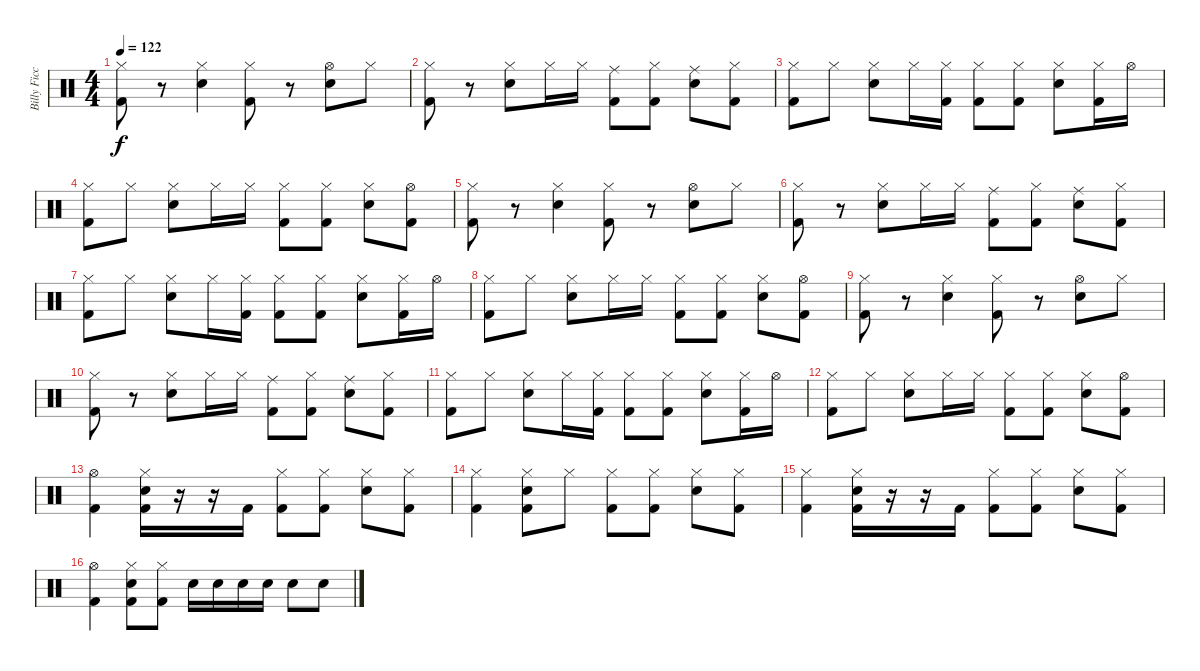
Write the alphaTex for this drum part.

\track ("Billy Ficca" "Billy Ficc") {instrument percussion}
\staff {score}
\articulation defaults
\ts (4 4)
\tempo 122
\clef neutral
\ks c
("Hi-Hat (closed)" "Kick (hit) 2").8{dy f} r.8 ("Hi-Hat (closed)" "Snare (hit) 2").4 ("Hi-Hat (closed)" "Kick (hit) 2").8 r.8 ("Hi-Hat (open)" "Snare (hit) 2").8 "Hi-Hat (closed)".8 |
("Hi-Hat (closed)" "Kick (hit) 2").8 r.8 ("Hi-Hat (closed)" "Snare (hit) 2").8 "Hi-Hat (closed)".16 "Hi-Hat (closed)".16 ("Ride (middle)" "Kick (hit) 2").8 ("Hi-Hat (closed)" "Kick (hit) 2").8 ("Ride (middle)" "Snare (hit) 2").8 ("Hi-Hat (closed)" "Kick (hit) 2").8 |
("Hi-Hat (closed)" "Kick (hit) 2").8 "Hi-Hat (closed)".8 ("Hi-Hat (closed)" "Snare (hit) 2").8 "Hi-Hat (closed)".16 ("Hi-Hat (closed)" "Kick (hit) 2").16 ("Hi-Hat (closed)" "Kick (hit) 2").8 ("Hi-Hat (closed)" "Kick (hit) 2").8 ("Hi-Hat (closed)" "Snare (hit) 2").8 ("Hi-Hat (closed)" "Kick (hit) 2").16 "Hi-Hat (open)".16 |
("Hi-Hat (closed)" "Kick (hit) 2").8 "Hi-Hat (closed)".8 ("Hi-Hat (closed)" "Snare (hit) 2").8 "Hi-Hat (closed)".16 "Hi-Hat (closed)".16 ("Hi-Hat (closed)" "Kick (hit) 2").8 ("Hi-Hat (closed)" "Kick (hit) 2").8 ("Hi-Hat (closed)" "Snare (hit) 2").8 ("Hi-Hat (open)" "Kick (hit) 2").8 |
("Hi-Hat (closed)" "Kick (hit) 2").8 r.8 ("Hi-Hat (closed)" "Snare (hit) 2").4 ("Hi-Hat (closed)" "Kick (hit) 2").8 r.8 ("Hi-Hat (open)" "Snare (hit) 2").8 "Hi-Hat (closed)".8 |
("Hi-Hat (closed)" "Kick (hit) 2").8 r.8 ("Hi-Hat (closed)" "Snare (hit) 2").8 "Hi-Hat (closed)".16 "Hi-Hat (closed)".16 ("Ride (middle)" "Kick (hit) 2").8 ("Hi-Hat (closed)" "Kick (hit) 2").8 ("Ride (middle)" "Snare (hit) 2").8 ("Hi-Hat (closed)" "Kick (hit) 2").8 |
("Hi-Hat (closed)" "Kick (hit) 2").8 "Hi-Hat (closed)".8 ("Hi-Hat (closed)" "Snare (hit) 2").8 "Hi-Hat (closed)".16 ("Hi-Hat (closed)" "Kick (hit) 2").16 ("Hi-Hat (closed)" "Kick (hit) 2").8 ("Hi-Hat (closed)" "Kick (hit) 2").8 ("Hi-Hat (closed)" "Snare (hit) 2").8 ("Hi-Hat (closed)" "Kick (hit) 2").16 "Hi-Hat (open)".16 |
("Hi-Hat (closed)" "Kick (hit) 2").8 "Hi-Hat (closed)".8 ("Hi-Hat (closed)" "Snare (hit) 2").8 "Hi-Hat (closed)".16 "Hi-Hat (closed)".16 ("Hi-Hat (closed)" "Kick (hit) 2").8 ("Hi-Hat (closed)" "Kick (hit) 2").8 ("Hi-Hat (closed)" "Snare (hit) 2").8 ("Hi-Hat (open)" "Kick (hit) 2").8 |
("Hi-Hat (closed)" "Kick (hit) 2").8 r.8 ("Hi-Hat (closed)" "Snare (hit) 2").4 ("Hi-Hat (closed)" "Kick (hit) 2").8 r.8 ("Hi-Hat (open)" "Snare (hit) 2").8 "Hi-Hat (closed)".8 |
("Hi-Hat (closed)" "Kick (hit) 2").8 r.8 ("Hi-Hat (closed)" "Snare (hit) 2").8 "Hi-Hat (closed)".16 "Hi-Hat (closed)".16 ("Ride (middle)" "Kick (hit) 2").8 ("Hi-Hat (closed)" "Kick (hit) 2").8 ("Ride (middle)" "Snare (hit) 2").8 ("Hi-Hat (closed)" "Kick (hit) 2").8 |
("Hi-Hat (closed)" "Kick (hit) 2").8 "Hi-Hat (closed)".8 ("Hi-Hat (closed)" "Snare (hit) 2").8 "Hi-Hat (closed)".16 ("Hi-Hat (closed)" "Kick (hit) 2").16 ("Hi-Hat (closed)" "Kick (hit) 2").8 ("Hi-Hat (closed)" "Kick (hit) 2").8 ("Hi-Hat (closed)" "Snare (hit) 2").8 ("Hi-Hat (closed)" "Kick (hit) 2").16 "Hi-Hat (open)".16 |
("Hi-Hat (closed)" "Kick (hit) 2").8 "Hi-Hat (closed)".8 ("Hi-Hat (closed)" "Snare (hit) 2").8 "Hi-Hat (closed)".16 "Hi-Hat (closed)".16 ("Hi-Hat (closed)" "Kick (hit) 2").8 ("Hi-Hat (closed)" "Kick (hit) 2").8 ("Hi-Hat (closed)" "Snare (hit) 2").8 ("Hi-Hat (open)" "Kick (hit) 2").8 |
("Hi-Hat (open)" "Kick (hit) 2").4 ("Hi-Hat (closed)" "Electric Snare (hit)" "Kick (hit) 2").16 r.16 r.16 "Kick (hit) 2".16 ("Hi-Hat (closed)" "Kick (hit) 2").8 ("Hi-Hat (closed)" "Kick (hit) 2").8 ("Hi-Hat (closed)" "Electric Snare (hit)").8 ("Hi-Hat (closed)" "Kick (hit) 2").8 |
("Hi-Hat (closed)" "Kick (hit) 2").4 ("Hi-Hat (closed)" "Electric Snare (hit)" "Kick (hit) 2").8 "Hi-Hat (closed)".8 ("Hi-Hat (closed)" "Kick (hit) 2").8 ("Hi-Hat (closed)" "Kick (hit) 2").8 ("Hi-Hat (closed)" "Electric Snare (hit)").8 ("Hi-Hat (closed)" "Kick (hit) 2").8 |
("Hi-Hat (closed)" "Kick (hit) 2").4 ("Hi-Hat (closed)" "Electric Snare (hit)" "Kick (hit) 2").16 r.16 r.16 "Kick (hit) 2".16 ("Hi-Hat (closed)" "Kick (hit) 2").8 ("Hi-Hat (closed)" "Kick (hit) 2").8 ("Hi-Hat (closed)" "Electric Snare (hit)").8 ("Hi-Hat (closed)" "Kick (hit) 2").8 |
("Hi-Hat (open)" "Kick (hit) 2").4 ("Hi-Hat (closed)" "Electric Snare (hit)" "Kick (hit) 2").8 ("Hi-Hat (closed)" "Kick (hit) 2").8 "Electric Snare (hit)".16 "Electric Snare (hit)".16 "Electric Snare (hit)".16 "Electric Snare (hit)".16 "Electric Snare (hit)".8 "Electric Snare (hit)".8
